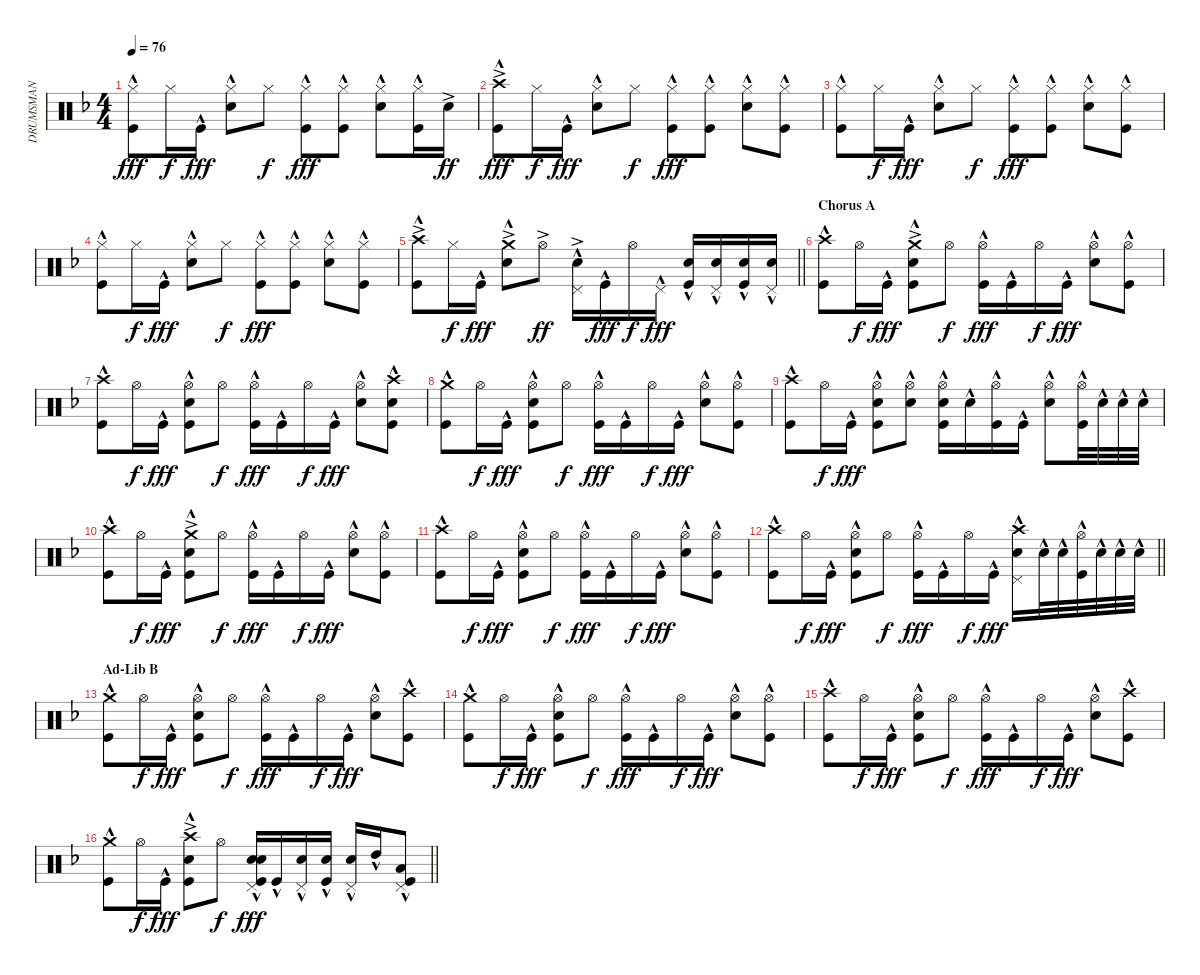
\track ("DRUMSMAN" "DRUMSMAN") {instrument percussion}
\staff {score}
\articulation defaults
\ts (4 4)
\tempo 76
\clef neutral
\ks f
("Hi-Hat (closed)" "Kick (hit)"{hac}).8{dy fff} "Hi-Hat (closed)".16{dy f} "Kick (hit)"{hac}.16{dy fff} ("Hi-Hat (closed)" "Snare (hit) 2"{hac}).8 "Hi-Hat (closed)".8{dy f} ("Hi-Hat (closed)" "Kick (hit)"{hac}).8{dy fff} ("Hi-Hat (closed)" "Kick (hit)"{hac}).8 ("Hi-Hat (closed)" "Snare (hit) 2"{hac}).8 ("Hi-Hat (closed)" "Kick (hit)"{hac}).16 "Snare (hit) 2"{ac}.16{dy ff} |
("Crash high (hit)"{ac} "Kick (hit)"{hac}).8{dy fff} "Hi-Hat (closed)".16{dy f} "Kick (hit)"{hac}.16{dy fff} ("Hi-Hat (closed)" "Snare (hit) 2"{hac}).8 "Hi-Hat (closed)".8{dy f} ("Hi-Hat (closed)" "Kick (hit)"{hac}).8{dy fff} ("Hi-Hat (closed)" "Kick (hit)"{hac}).8 ("Hi-Hat (closed)" "Snare (hit) 2"{hac}).8 ("Hi-Hat (closed)" "Kick (hit)"{hac}).8 |
("Hi-Hat (closed)" "Kick (hit)"{hac}).8 "Hi-Hat (closed)".16{dy f} "Kick (hit)"{hac}.16{dy fff} ("Hi-Hat (closed)" "Snare (hit) 2"{hac}).8 "Hi-Hat (closed)".8{dy f} ("Hi-Hat (closed)" "Kick (hit)"{hac}).8{dy fff} ("Hi-Hat (closed)" "Kick (hit)"{hac}).8 ("Hi-Hat (closed)" "Snare (hit) 2"{hac}).8 ("Hi-Hat (closed)" "Kick (hit)"{hac}).8 |
("Hi-Hat (closed)" "Kick (hit)"{hac}).8 "Hi-Hat (closed)".16{dy f} "Kick (hit)"{hac}.16{dy fff} ("Hi-Hat (closed)" "Snare (hit) 2"{hac}).8 "Hi-Hat (closed)".8{dy f} ("Hi-Hat (closed)" "Kick (hit)"{hac}).8{dy fff} ("Hi-Hat (closed)" "Kick (hit)"{hac}).8 ("Hi-Hat (closed)" "Snare (hit) 2"{hac}).8 ("Hi-Hat (closed)" "Kick (hit)"{hac}).8 |
\barLineRight lightlight
("Crash high (hit)"{ac} "Kick (hit)"{hac}).8 "Hi-Hat (closed)".16{dy f} "Kick (hit)"{hac}.16{dy fff} ("Crash medium (hit)"{ac} "Snare (hit) 2"{hac}).8 "Hi-Hat (open)"{ac}.8{dy ff} ("Snare (hit) 2"{hac} "Pedal Hi-Hat (hit)"{ac}).16 "Kick (hit)"{hac}.16{dy fff} "Hi-Hat (open)".16{dy f} "Pedal Hi-Hat (hit)"{hac}.16{dy fff} ("Snare (hit) 2"{hac} "Kick (hit)"{hac}).16 ("Snare (hit) 2"{hac} "Pedal Hi-Hat (hit)"{hac}).16 ("Snare (hit) 2"{hac} "Kick (hit)"{hac}).16 ("Snare (hit) 2"{hac} "Pedal Hi-Hat (hit)"{hac}).16 |
\section ("" "Chorus A")
("Crash high (hit)"{hac} "Kick (hit)"{hac}).8 "Hi-Hat (open)".16{dy f} "Kick (hit)"{hac}.16{dy fff} ("Crash medium (hit)"{ac} "Snare (hit) 2"{hac} "Kick (hit)"{hac}).8 "Hi-Hat (open)".8{dy f} ("Hi-Hat (open)" "Kick (hit)"{hac}).16{dy fff} "Kick (hit)"{hac}.16 "Hi-Hat (open)".16{dy f} "Kick (hit)"{hac}.16{dy fff} ("Hi-Hat (open)" "Snare (hit) 2"{hac}).8 ("Hi-Hat (open)" "Kick (hit)"{hac}).8 |
("Crash high (hit)"{hac} "Kick (hit)"{hac}).8 "Hi-Hat (open)".16{dy f} "Kick (hit)"{hac}.16{dy fff} ("Hi-Hat (open)" "Snare (hit) 2"{hac} "Kick (hit)"{hac}).8 "Hi-Hat (open)".8{dy f} ("Hi-Hat (open)" "Kick (hit)"{hac}).16{dy fff} "Kick (hit)"{hac}.16 "Hi-Hat (open)".16{dy f} "Kick (hit)"{hac}.16{dy fff} ("Hi-Hat (open)" "Snare (hit) 2"{hac}).8 ("Crash high (hit)"{hac} "Snare (hit) 2"{hac} "Kick (hit)"{hac}).8 |
("Crash medium (hit)"{hac} "Kick (hit)"{hac}).8 "Hi-Hat (open)".16{dy f} "Kick (hit)"{hac}.16{dy fff} ("Hi-Hat (open)" "Snare (hit) 2"{hac} "Kick (hit)"{hac}).8 "Hi-Hat (open)".8{dy f} ("Hi-Hat (open)" "Kick (hit)"{hac}).16{dy fff} "Kick (hit)"{hac}.16 "Hi-Hat (open)".16{dy f} "Kick (hit)"{hac}.16{dy fff} ("Hi-Hat (open)" "Snare (hit) 2"{hac}).8 ("Hi-Hat (open)" "Kick (hit)"{hac}).8 |
("Crash high (hit)"{hac} "Kick (hit)"{hac}).8 "Hi-Hat (open)".16{dy f} "Kick (hit)"{hac}.16{dy fff} ("Hi-Hat (open)" "Snare (hit) 2"{hac} "Kick (hit)"{hac}).8 ("Hi-Hat (open)" "Snare (hit) 2"{hac}).8 ("Hi-Hat (open)" "Snare (hit) 2"{hac} "Kick (hit)"{hac}).16 "Snare (hit) 2"{hac}.16 ("Hi-Hat (open)" "Kick (hit)"{hac}).16 "Kick (hit)"{hac}.16 ("Hi-Hat (open)" "Snare (hit) 2"{hac}).8 ("Hi-Hat (open)" "Kick (hit)"{hac}).32 "Snare (hit) 2"{hac}.32 "Snare (hit) 2"{hac}.32 "Snare (hit) 2"{hac}.32 |
("Crash high (hit)"{hac} "Kick (hit)"{hac}).8 "Hi-Hat (open)".16{dy f} "Kick (hit)"{hac}.16{dy fff} ("Crash medium (hit)"{ac} "Snare (hit) 2"{hac} "Kick (hit)"{hac}).8 "Hi-Hat (open)".8{dy f} ("Hi-Hat (open)" "Kick (hit)"{hac}).16{dy fff} "Kick (hit)"{hac}.16 "Hi-Hat (open)".16{dy f} "Kick (hit)"{hac}.16{dy fff} ("Hi-Hat (open)" "Snare (hit) 2"{hac}).8 ("Hi-Hat (open)" "Kick (hit)"{hac}).8 |
("Crash high (hit)"{hac} "Kick (hit)"{hac}).8 "Hi-Hat (open)".16{dy f} "Kick (hit)"{hac}.16{dy fff} ("Hi-Hat (open)" "Snare (hit) 2"{hac} "Kick (hit)"{hac}).8 "Hi-Hat (open)".8{dy f} ("Hi-Hat (open)" "Kick (hit)"{hac}).16{dy fff} "Kick (hit)"{hac}.16 "Hi-Hat (open)".16{dy f} "Kick (hit)"{hac}.16{dy fff} ("Hi-Hat (open)" "Snare (hit) 2"{hac}).8 ("Hi-Hat (open)" "Kick (hit)"{hac}).8 |
\barLineRight lightlight
("Crash high (hit)"{hac} "Kick (hit)"{hac}).8 "Hi-Hat (open)".16{dy f} "Kick (hit)"{hac}.16{dy fff} ("Hi-Hat (open)" "Snare (hit) 2"{hac} "Kick (hit)"{hac}).8 "Hi-Hat (open)".8{dy f} ("Hi-Hat (open)" "Kick (hit)"{hac}).16{dy fff} "Kick (hit)"{hac}.16 "Hi-Hat (open)".16{dy f} "Kick (hit)"{hac}.16{dy fff} ("Crash high (hit)"{hac} "Snare (hit) 2"{hac} "Pedal Hi-Hat (hit)").16 "Snare (hit) 2"{hac}.32 "Snare (hit) 2"{hac}.32 ("Hi-Hat (open)" "Kick (hit)"{hac}).32 "Snare (hit) 2"{hac}.32 "Snare (hit) 2"{hac}.32 "Snare (hit) 2"{hac}.32 |
\section ("" "Ad-Lib B")
("Crash medium (hit)"{hac} "Kick (hit)"{hac}).8 "Hi-Hat (open)".16{dy f} "Kick (hit)"{hac}.16{dy fff} ("Hi-Hat (open)" "Snare (hit) 2"{hac} "Kick (hit)"{hac}).8 "Hi-Hat (open)".8{dy f} ("Hi-Hat (open)" "Kick (hit)"{hac}).16{dy fff} "Kick (hit)"{hac}.16 "Hi-Hat (open)".16{dy f} "Kick (hit)"{hac}.16{dy fff} ("Hi-Hat (open)" "Snare (hit) 2"{hac}).8 ("Crash high (hit)"{hac} "Kick (hit)"{hac}).8 |
("Crash medium (hit)"{hac} "Kick (hit)"{hac}).8 "Hi-Hat (open)".16{dy f} "Kick (hit)"{hac}.16{dy fff} ("Hi-Hat (open)" "Snare (hit) 2"{hac} "Kick (hit)"{hac}).8 "Hi-Hat (open)".8{dy f} ("Hi-Hat (open)" "Kick (hit)"{hac}).16{dy fff} "Kick (hit)"{hac}.16 "Hi-Hat (open)".16{dy f} "Kick (hit)"{hac}.16{dy fff} ("Hi-Hat (open)" "Snare (hit) 2"{hac}).8 ("Hi-Hat (open)" "Kick (hit)"{hac}).8 |
("Crash high (hit)"{hac} "Kick (hit)"{hac}).8 "Hi-Hat (open)".16{dy f} "Kick (hit)"{hac}.16{dy fff} ("Hi-Hat (open)" "Snare (hit) 2"{hac} "Kick (hit)"{hac}).8 "Hi-Hat (open)".8{dy f} ("Hi-Hat (open)" "Kick (hit)"{hac}).16{dy fff} "Kick (hit)"{hac}.16 "Hi-Hat (open)".16{dy f} "Kick (hit)"{hac}.16{dy fff} ("Hi-Hat (open)" "Snare (hit) 2"{hac}).8 ("Crash high (hit)"{hac} "Kick (hit)"{hac}).8 |
\barLineRight lightlight
("Crash medium (hit)"{hac} "Kick (hit)"{hac}).8 "Hi-Hat (open)".16{dy f} "Kick (hit)"{hac}.16{dy fff} ("Crash high (hit)"{ac} "Snare (hit) 2"{hac} "Kick (hit)"{hac}).8 "Hi-Hat (open)".8{dy f} ("Snare (hit) 2" "Snare (hit) 2"{hac} "Pedal Hi-Hat (hit)" "Kick (hit)"{hac}).16{dy fff} "Kick (hit)"{hac}.16 ("Snare (hit) 2"{hac} "Pedal Hi-Hat (hit)").16 ("Snare (hit) 2"{hac} "Kick (hit)"{hac}).16 ("Snare (hit) 2"{hac} "Pedal Hi-Hat (hit)").16 "High Tom (hit)"{hac}.16 ("Low Tom (hit)" "Pedal Hi-Hat (hit)" "Kick (hit)"{hac}).8
